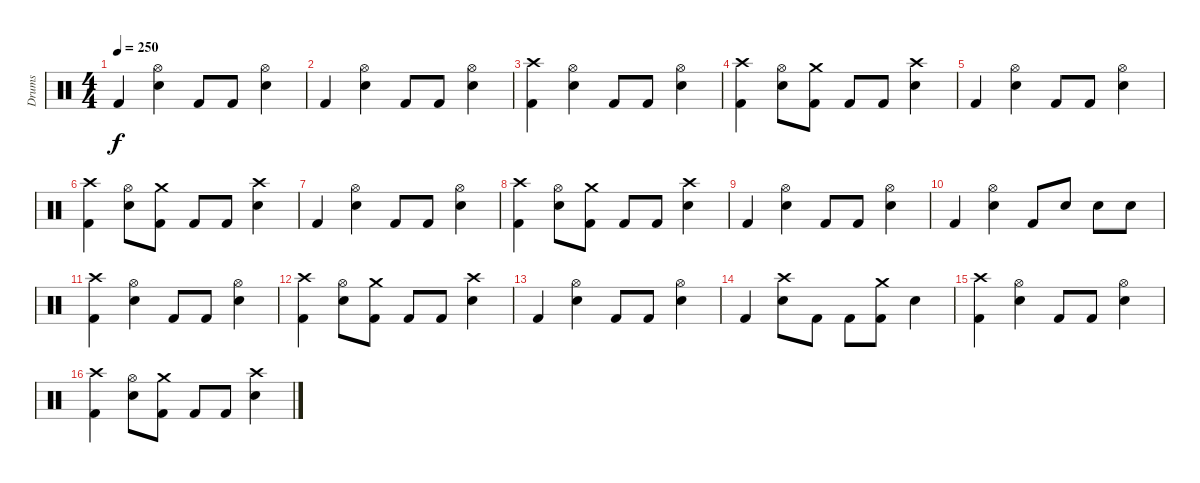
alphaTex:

\track ("Drums" "Drums") {instrument percussion}
\staff {score}
\articulation defaults
\ts (4 4)
\tempo 250
\clef neutral
\ks c "Kick (hit) 2".4{dy f}
("Hi-Hat (open)" "Snare (hit) 2").4 "Kick (hit) 2".8 "Kick (hit) 2".8 ("Hi-Hat (open)" "Snare (hit) 2").4 |
"Kick (hit) 2".4 ("Hi-Hat (open)" "Snare (hit) 2").4 "Kick (hit) 2".8 "Kick (hit) 2".8 ("Hi-Hat (open)" "Snare (hit) 2").4 |
("Crash high (hit)" "Kick (hit) 2").4 ("Hi-Hat (open)" "Snare (hit) 2").4 "Kick (hit) 2".8 "Kick (hit) 2".8 ("Hi-Hat (open)" "Snare (hit) 2").4 |
("Crash high (hit)" "Kick (hit) 2").4 ("Hi-Hat (open)" "Snare (hit) 2").8 ("Crash medium (hit)" "Kick (hit) 2").8 "Kick (hit) 2".8 "Kick (hit) 2".8 ("Crash high (hit)" "Snare (hit) 2").4 |
"Kick (hit) 2".4 ("Hi-Hat (open)" "Snare (hit) 2").4 "Kick (hit) 2".8 "Kick (hit) 2".8 ("Hi-Hat (open)" "Snare (hit) 2").4 |
("Crash high (hit)" "Kick (hit) 2").4 ("Hi-Hat (open)" "Snare (hit) 2").8 ("Crash medium (hit)" "Kick (hit) 2").8 "Kick (hit) 2".8 "Kick (hit) 2".8 ("Crash high (hit)" "Snare (hit) 2").4 |
"Kick (hit) 2".4 ("Hi-Hat (open)" "Snare (hit) 2").4 "Kick (hit) 2".8 "Kick (hit) 2".8 ("Hi-Hat (open)" "Snare (hit) 2").4 |
("Crash high (hit)" "Kick (hit) 2").4 ("Hi-Hat (open)" "Snare (hit) 2").8 ("Crash medium (hit)" "Kick (hit) 2").8 "Kick (hit) 2".8 "Kick (hit) 2".8 ("Crash high (hit)" "Snare (hit) 2").4 |
"Kick (hit) 2".4 ("Hi-Hat (open)" "Snare (hit) 2").4 "Kick (hit) 2".8 "Kick (hit) 2".8 ("Hi-Hat (open)" "Snare (hit) 2").4 |
"Kick (hit) 2".4 ("Hi-Hat (open)" "Snare (hit) 2").4 "Kick (hit) 2".8 "Snare (hit) 2".8 "Snare (hit) 2".8 "Snare (hit) 2".8 |
("Crash high (hit)" "Kick (hit) 2").4 ("Hi-Hat (open)" "Snare (hit) 2").4 "Kick (hit) 2".8 "Kick (hit) 2".8 ("Hi-Hat (open)" "Snare (hit) 2").4 |
("Crash high (hit)" "Kick (hit) 2").4 ("Hi-Hat (open)" "Snare (hit) 2").8 ("Crash medium (hit)" "Kick (hit) 2").8 "Kick (hit) 2".8 "Kick (hit) 2".8 ("Crash high (hit)" "Snare (hit) 2").4 |
"Kick (hit) 2".4 ("Hi-Hat (open)" "Snare (hit) 2").4 "Kick (hit) 2".8 "Kick (hit) 2".8 ("Hi-Hat (open)" "Snare (hit) 2").4 |
"Kick (hit) 2".4 ("Crash high (hit)" "Snare (hit) 2").8 "Kick (hit) 2".8 "Kick (hit) 2".8 ("Crash medium (hit)" "Kick (hit) 2").8 "Snare (hit) 2".4 |
("Crash high (hit)" "Kick (hit) 2").4 ("Hi-Hat (open)" "Snare (hit) 2").4 "Kick (hit) 2".8 "Kick (hit) 2".8 ("Hi-Hat (open)" "Snare (hit) 2").4 |
("Crash high (hit)" "Kick (hit) 2").4 ("Hi-Hat (open)" "Snare (hit) 2").8 ("Crash medium (hit)" "Kick (hit) 2").8 "Kick (hit) 2".8 "Kick (hit) 2".8 ("Crash high (hit)" "Snare (hit) 2").4
